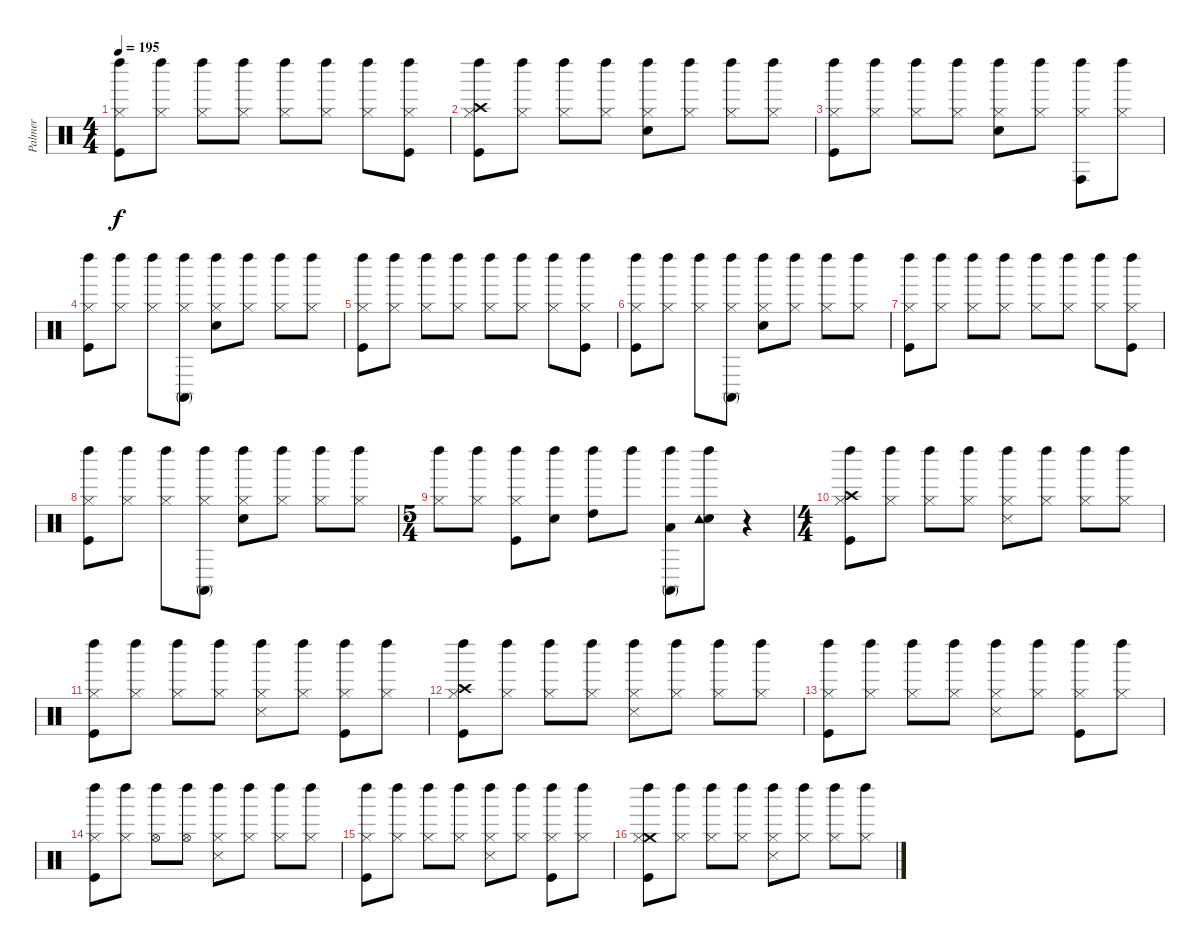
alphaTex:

\track ("Palmer" "Palmer") {instrument percussion}
\staff {score}
\articulation defaults
\ts (4 4)
\tempo 195
\clef neutral
\ks c
("Kick (hit)" "Hi-Hat (closed)" "Left Maraca (hit)").8{dy f} ("Hi-Hat (closed)" "Left Maraca (hit)").8 ("Hi-Hat (closed)" "Left Maraca (hit)").8 ("Hi-Hat (closed)" "Left Maraca (hit)").8 ("Hi-Hat (closed)" "Left Maraca (hit)").8 ("Hi-Hat (closed)" "Left Maraca (hit)").8 ("Hi-Hat (closed)" "Left Maraca (hit)").8 ("Kick (hit)" "Hi-Hat (closed)" "Left Maraca (hit)").8 |
("Kick (hit)" "Hi-Hat (closed)" "Crash high (hit)" "Left Maraca (hit)").8 ("Hi-Hat (closed)" "Left Maraca (hit)").8 ("Hi-Hat (closed)" "Left Maraca (hit)").8 ("Hi-Hat (closed)" "Left Maraca (hit)").8 ("Snare (hit) 2" "Hi-Hat (closed)" "Left Maraca (hit)").8 ("Hi-Hat (closed)" "Left Maraca (hit)").8 ("Hi-Hat (closed)" "Left Maraca (hit)").8 ("Hi-Hat (closed)" "Left Maraca (hit)").8 |
("Kick (hit)" "Hi-Hat (closed)" "Left Maraca (hit)").8 ("Hi-Hat (closed)" "Left Maraca (hit)").8 ("Hi-Hat (closed)" "Left Maraca (hit)").8 ("Hi-Hat (closed)" "Left Maraca (hit)").8 ("Snare (hit) 2" "Hi-Hat (closed)" "Left Maraca (hit)").8 ("Hi-Hat (closed)" "Left Maraca (hit)").8 ("Hi-Hat (closed)" "Conga high (hit)" "Left Maraca (hit)").8 ("Hi-Hat (closed)" "Left Maraca (hit)").8 |
("Kick (hit)" "Hi-Hat (closed)" "Left Maraca (hit)").8 ("Hi-Hat (closed)" "Left Maraca (hit)").8 ("Hi-Hat (closed)" "Left Maraca (hit)").8 ("Hi-Hat (closed)" "Conga high (mute)" "Left Maraca (hit)").8 ("Snare (hit) 2" "Hi-Hat (closed)" "Left Maraca (hit)").8 ("Hi-Hat (closed)" "Left Maraca (hit)").8 ("Hi-Hat (closed)" "Left Maraca (hit)").8 ("Hi-Hat (closed)" "Left Maraca (hit)").8 |
("Kick (hit)" "Hi-Hat (closed)" "Left Maraca (hit)").8 ("Hi-Hat (closed)" "Left Maraca (hit)").8 ("Hi-Hat (closed)" "Left Maraca (hit)").8 ("Hi-Hat (closed)" "Left Maraca (hit)").8 ("Hi-Hat (closed)" "Left Maraca (hit)").8 ("Hi-Hat (closed)" "Left Maraca (hit)").8 ("Hi-Hat (closed)" "Left Maraca (hit)").8 ("Kick (hit)" "Hi-Hat (closed)" "Left Maraca (hit)").8 |
("Kick (hit)" "Hi-Hat (closed)" "Left Maraca (hit)").8 ("Hi-Hat (closed)" "Left Maraca (hit)").8 ("Hi-Hat (closed)" "Left Maraca (hit)").8 ("Hi-Hat (closed)" "Conga high (mute)" "Left Maraca (hit)").8 ("Snare (hit) 2" "Hi-Hat (closed)" "Left Maraca (hit)").8 ("Hi-Hat (closed)" "Left Maraca (hit)").8 ("Hi-Hat (closed)" "Left Maraca (hit)").8 ("Hi-Hat (closed)" "Left Maraca (hit)").8 |
("Kick (hit)" "Hi-Hat (closed)" "Left Maraca (hit)").8 ("Hi-Hat (closed)" "Left Maraca (hit)").8 ("Hi-Hat (closed)" "Left Maraca (hit)").8 ("Hi-Hat (closed)" "Left Maraca (hit)").8 ("Hi-Hat (closed)" "Left Maraca (hit)").8 ("Hi-Hat (closed)" "Left Maraca (hit)").8 ("Hi-Hat (closed)" "Left Maraca (hit)").8 ("Kick (hit)" "Hi-Hat (closed)" "Left Maraca (hit)").8 |
("Kick (hit)" "Hi-Hat (closed)" "Left Maraca (hit)").8 ("Hi-Hat (closed)" "Left Maraca (hit)").8 ("Hi-Hat (closed)" "Left Maraca (hit)").8 ("Hi-Hat (closed)" "Conga high (mute)" "Left Maraca (hit)").8 ("Snare (hit) 2" "Hi-Hat (closed)" "Left Maraca (hit)").8 ("Hi-Hat (closed)" "Left Maraca (hit)").8 ("Hi-Hat (closed)" "Left Maraca (hit)").8 ("Hi-Hat (closed)" "Left Maraca (hit)").8 |
\ts (5 4)
("Hi-Hat (closed)" "Left Maraca (hit)").8 ("Hi-Hat (closed)" "Left Maraca (hit)").8 ("Kick (hit)" "Hi-Hat (closed)" "Left Maraca (hit)").8 ("Snare (hit) 2" "Left Maraca (hit)").8 ("High Tom (hit)" "Left Maraca (hit)").8 "Left Maraca (hit)".8 ("Low Tom (hit)" "Conga high (mute)" "Left Maraca (hit)").8 ("Snare (hit) 2" "Tambourine (hit)" "Left Maraca (hit)").8 r.4 |
\ts (4 4)
("Kick (hit)" "Hi-Hat (closed)" "Crash high (hit)" "Left Maraca (hit)").8 ("Hi-Hat (closed)" "Left Maraca (hit)").8 ("Hi-Hat (closed)" "Left Maraca (hit)").8 ("Hi-Hat (closed)" "Left Maraca (hit)").8 ("Hi-Hat (closed)" "Snare (side stick) 3" "Left Maraca (hit)").8 ("Hi-Hat (closed)" "Left Maraca (hit)").8 ("Hi-Hat (closed)" "Left Maraca (hit)").8 ("Hi-Hat (closed)" "Left Maraca (hit)").8 |
("Kick (hit)" "Hi-Hat (closed)" "Left Maraca (hit)").8 ("Hi-Hat (closed)" "Left Maraca (hit)").8 ("Hi-Hat (closed)" "Left Maraca (hit)").8 ("Hi-Hat (closed)" "Left Maraca (hit)").8 ("Hi-Hat (closed)" "Snare (side stick) 3" "Left Maraca (hit)").8 ("Hi-Hat (closed)" "Left Maraca (hit)").8 ("Kick (hit)" "Hi-Hat (closed)" "Left Maraca (hit)").8 ("Hi-Hat (closed)" "Left Maraca (hit)").8 |
("Kick (hit)" "Hi-Hat (closed)" "Crash high (hit)" "Left Maraca (hit)").8 ("Hi-Hat (closed)" "Left Maraca (hit)").8 ("Hi-Hat (closed)" "Left Maraca (hit)").8 ("Hi-Hat (closed)" "Left Maraca (hit)").8 ("Hi-Hat (closed)" "Snare (side stick) 3" "Left Maraca (hit)").8 ("Hi-Hat (closed)" "Left Maraca (hit)").8 ("Hi-Hat (closed)" "Left Maraca (hit)").8 ("Hi-Hat (closed)" "Left Maraca (hit)").8 |
("Kick (hit)" "Hi-Hat (closed)" "Left Maraca (hit)").8 ("Hi-Hat (closed)" "Left Maraca (hit)").8 ("Hi-Hat (closed)" "Left Maraca (hit)").8 ("Hi-Hat (closed)" "Left Maraca (hit)").8 ("Hi-Hat (closed)" "Snare (side stick) 3" "Left Maraca (hit)").8 ("Hi-Hat (closed)" "Left Maraca (hit)").8 ("Kick (hit)" "Hi-Hat (closed)" "Left Maraca (hit)").8 ("Hi-Hat (closed)" "Left Maraca (hit)").8 |
("Kick (hit)" "Hi-Hat (closed)" "Left Maraca (hit)").8 ("Hi-Hat (closed)" "Left Maraca (hit)").8 ("Hi-Hat (open)" "Left Maraca (hit)").8 ("Hi-Hat (open)" "Left Maraca (hit)").8 ("Hi-Hat (closed)" "Snare (side stick) 3" "Left Maraca (hit)").8 ("Hi-Hat (closed)" "Left Maraca (hit)").8 ("Hi-Hat (closed)" "Left Maraca (hit)").8 ("Hi-Hat (closed)" "Left Maraca (hit)").8 |
("Kick (hit)" "Hi-Hat (closed)" "Left Maraca (hit)").8 ("Hi-Hat (closed)" "Left Maraca (hit)").8 ("Hi-Hat (closed)" "Left Maraca (hit)").8 ("Hi-Hat (closed)" "Left Maraca (hit)").8 ("Hi-Hat (closed)" "Snare (side stick) 3" "Left Maraca (hit)").8 ("Hi-Hat (closed)" "Left Maraca (hit)").8 ("Kick (hit)" "Hi-Hat (closed)" "Left Maraca (hit)").8 ("Hi-Hat (closed)" "Left Maraca (hit)").8 |
("Crash medium (hit)" "Kick (hit)" "Hi-Hat (closed)" "Left Maraca (hit)").8 ("Hi-Hat (closed)" "Left Maraca (hit)").8 ("Hi-Hat (closed)" "Left Maraca (hit)").8 ("Hi-Hat (closed)" "Left Maraca (hit)").8 ("Hi-Hat (closed)" "Snare (side stick) 3" "Left Maraca (hit)").8 ("Hi-Hat (closed)" "Left Maraca (hit)").8 ("Hi-Hat (closed)" "Left Maraca (hit)").8 ("Hi-Hat (closed)" "Left Maraca (hit)").8
